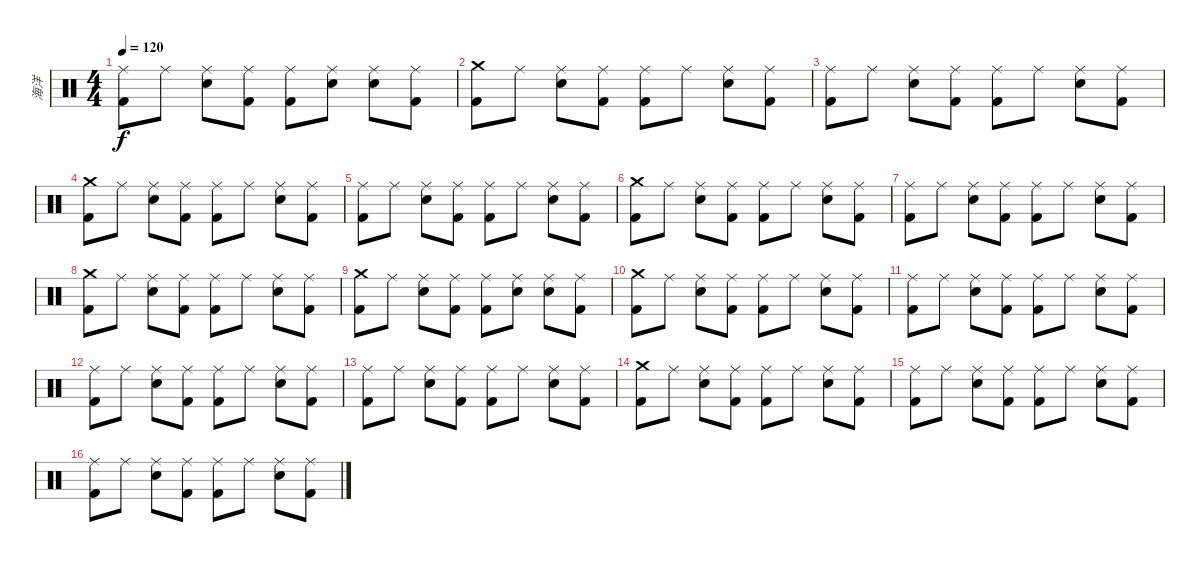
\track ("海洋" "海洋") {instrument percussion}
\staff {score}
\articulation defaults
\ts (4 4)
\tempo 120
\clef neutral
\ks c
("Ride (middle)" "Kick (hit) 2").8{dy f} "Ride (middle)".8 ("Ride (middle)" "Electric Snare (hit)").8 ("Ride (middle)" "Kick (hit) 2").8 ("Ride (middle)" "Kick (hit) 2").8 ("Ride (middle)" "Electric Snare (hit)").8 ("Ride (middle)" "Electric Snare (hit)").8 ("Ride (middle)" "Kick (hit) 2").8 |
("Crash medium (hit)" "Kick (hit) 2").8 "Ride (middle)".8 ("Ride (middle)" "Electric Snare (hit)").8 ("Ride (middle)" "Kick (hit) 2").8 ("Ride (middle)" "Kick (hit) 2").8 "Ride (middle)".8 ("Ride (middle)" "Electric Snare (hit)").8 ("Ride (middle)" "Kick (hit) 2").8 |
("Ride (middle)" "Kick (hit) 2").8 "Ride (middle)".8 ("Ride (middle)" "Electric Snare (hit)").8 ("Ride (middle)" "Kick (hit) 2").8 ("Ride (middle)" "Kick (hit) 2").8 "Ride (middle)".8 ("Ride (middle)" "Electric Snare (hit)").8 ("Ride (middle)" "Kick (hit) 2").8 |
("Crash medium (hit)" "Kick (hit) 2").8 "Ride (middle)".8 ("Ride (middle)" "Electric Snare (hit)").8 ("Ride (middle)" "Kick (hit) 2").8 ("Ride (middle)" "Kick (hit) 2").8 "Ride (middle)".8 ("Ride (middle)" "Electric Snare (hit)").8 ("Ride (middle)" "Kick (hit) 2").8 |
("Ride (middle)" "Kick (hit) 2").8 "Ride (middle)".8 ("Ride (middle)" "Electric Snare (hit)").8 ("Ride (middle)" "Kick (hit) 2").8 ("Ride (middle)" "Kick (hit) 2").8 "Ride (middle)".8 ("Ride (middle)" "Electric Snare (hit)").8 ("Ride (middle)" "Kick (hit) 2").8 |
("Crash medium (hit)" "Kick (hit) 2").8 "Ride (middle)".8 ("Ride (middle)" "Electric Snare (hit)").8 ("Ride (middle)" "Kick (hit) 2").8 ("Ride (middle)" "Kick (hit) 2").8 "Ride (middle)".8 ("Ride (middle)" "Electric Snare (hit)").8 ("Ride (middle)" "Kick (hit) 2").8 |
("Ride (middle)" "Kick (hit) 2").8 "Ride (middle)".8 ("Ride (middle)" "Electric Snare (hit)").8 ("Ride (middle)" "Kick (hit) 2").8 ("Ride (middle)" "Kick (hit) 2").8 "Ride (middle)".8 ("Ride (middle)" "Electric Snare (hit)").8 ("Ride (middle)" "Kick (hit) 2").8 |
("Crash medium (hit)" "Kick (hit) 2").8 "Ride (middle)".8 ("Ride (middle)" "Electric Snare (hit)").8 ("Ride (middle)" "Kick (hit) 2").8 ("Ride (middle)" "Kick (hit) 2").8 "Ride (middle)".8 ("Ride (middle)" "Electric Snare (hit)").8 ("Ride (middle)" "Kick (hit) 2").8 |
("Crash medium (hit)" "Kick (hit) 2").8 "Ride (middle)".8 ("Ride (middle)" "Electric Snare (hit)").8 ("Ride (middle)" "Kick (hit) 2").8 ("Ride (middle)" "Kick (hit) 2").8 ("Ride (middle)" "Electric Snare (hit)").8 ("Ride (middle)" "Electric Snare (hit)").8 ("Ride (middle)" "Kick (hit) 2").8 |
("Crash medium (hit)" "Kick (hit) 2").8 "Ride (middle)".8 ("Ride (middle)" "Electric Snare (hit)").8 ("Ride (middle)" "Kick (hit) 2").8 ("Ride (middle)" "Kick (hit) 2").8 "Ride (middle)".8 ("Ride (middle)" "Electric Snare (hit)").8 ("Ride (middle)" "Kick (hit) 2").8 |
("Ride (middle)" "Kick (hit) 2").8 "Ride (middle)".8 ("Ride (middle)" "Electric Snare (hit)").8 ("Ride (middle)" "Kick (hit) 2").8 ("Ride (middle)" "Kick (hit) 2").8 "Ride (middle)".8 ("Ride (middle)" "Electric Snare (hit)").8 ("Ride (middle)" "Kick (hit) 2").8 |
("Ride (middle)" "Kick (hit) 2").8 "Ride (middle)".8 ("Ride (middle)" "Electric Snare (hit)").8 ("Ride (middle)" "Kick (hit) 2").8 ("Ride (middle)" "Kick (hit) 2").8 "Ride (middle)".8 ("Ride (middle)" "Electric Snare (hit)").8 ("Ride (middle)" "Kick (hit) 2").8 |
("Ride (middle)" "Kick (hit) 2").8 "Ride (middle)".8 ("Ride (middle)" "Electric Snare (hit)").8 ("Ride (middle)" "Kick (hit) 2").8 ("Ride (middle)" "Kick (hit) 2").8 "Ride (middle)".8 ("Ride (middle)" "Electric Snare (hit)").8 ("Ride (middle)" "Kick (hit) 2").8 |
("Crash medium (hit)" "Kick (hit) 2").8 "Ride (middle)".8 ("Ride (middle)" "Electric Snare (hit)").8 ("Ride (middle)" "Kick (hit) 2").8 ("Ride (middle)" "Kick (hit) 2").8 "Ride (middle)".8 ("Ride (middle)" "Electric Snare (hit)").8 ("Ride (middle)" "Kick (hit) 2").8 |
("Ride (middle)" "Kick (hit) 2").8 "Ride (middle)".8 ("Ride (middle)" "Electric Snare (hit)").8 ("Ride (middle)" "Kick (hit) 2").8 ("Ride (middle)" "Kick (hit) 2").8 "Ride (middle)".8 ("Ride (middle)" "Electric Snare (hit)").8 ("Ride (middle)" "Kick (hit) 2").8 |
("Ride (middle)" "Kick (hit) 2").8 "Ride (middle)".8 ("Ride (middle)" "Electric Snare (hit)").8 ("Ride (middle)" "Kick (hit) 2").8 ("Ride (middle)" "Kick (hit) 2").8 "Ride (middle)".8 ("Ride (middle)" "Electric Snare (hit)").8 ("Ride (middle)" "Kick (hit) 2").8
